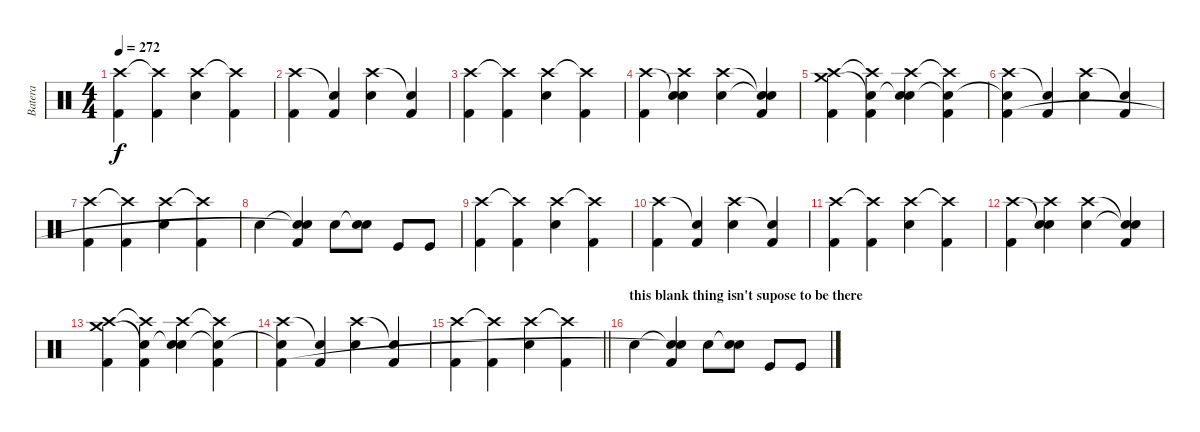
\track ("Batera" "Batera") {instrument percussion}
\staff {score}
\articulation defaults
\ts (4 4)
\tempo 272
\clef neutral
\ks c
("Crash high (hit)" "Kick (hit) 2").4{dy f} ("Crash high (hit)"{t} "Kick (hit) 2").4 ("Crash high (hit)" "Electric Snare (hit)").4 ("Crash high (hit)"{t} "Kick (hit) 2").4 |
("Crash high (hit)" "Kick (hit) 2").4 ("Snare (hit)"{t} "Kick (hit) 2").4 ("Crash high (hit)" "Electric Snare (hit)").4 ("Snare (hit)"{t} "Kick (hit) 2").4 |
("Crash high (hit)" "Kick (hit) 2").4 ("Crash high (hit)"{t} "Kick (hit) 2").4 ("Crash high (hit)" "Electric Snare (hit)").4 ("Crash high (hit)"{t} "Kick (hit) 2").4 |
("Crash high (hit)" "Kick (hit) 2").4 ("Snare (hit)"{t} "Crash high (hit)" "Electric Snare (hit)").4 ("Crash high (hit)" "Electric Snare (hit)").4 ("Snare (hit)"{t} "Snare (hit)"{t} "Kick (hit) 2").4 |
("Crash high (hit)" "Crash medium (hit)" "Kick (hit) 2").4 ("Crash high (hit)"{t} "Snare (hit)"{t} "Kick (hit) 2").4 ("Crash high (hit)" "Snare (hit)"{t} "Electric Snare (hit)").4 ("Crash high (hit)"{t} "Snare (hit)"{t} "Kick (hit) 2").4 |
("Crash high (hit)" "Snare (hit)"{t} "Kick (hit) 2").4 ("Snare (hit)"{t} "Kick (hit) 2").4 ("Crash high (hit)" "Electric Snare (hit)").4 ("Snare (hit)"{t} "Kick (hit) 2").4 |
("Crash high (hit)" "Kick (hit) 2").4 ("Crash high (hit)"{t} "Kick (hit) 2").4 ("Crash high (hit)" "Electric Snare (hit)").4 ("Crash high (hit)"{t} "Kick (hit) 2").4 |
"Electric Snare (hit)".4 ("Snare (hit)"{t} "Kick (hit) 2" "Snare (hit)"{t}).4 "Electric Snare (hit)".8 ("Snare (hit)"{t} "Electric Snare (hit)").8 "Kick (hit)".8 "Kick (hit)".8 |
("Crash high (hit)" "Kick (hit) 2").4 ("Crash high (hit)"{t} "Kick (hit) 2").4 ("Crash high (hit)" "Electric Snare (hit)").4 ("Crash high (hit)"{t} "Kick (hit) 2").4 |
("Crash high (hit)" "Kick (hit) 2").4 ("Snare (hit)"{t} "Kick (hit) 2").4 ("Crash high (hit)" "Electric Snare (hit)").4 ("Snare (hit)"{t} "Kick (hit) 2").4 |
("Crash high (hit)" "Kick (hit) 2").4 ("Crash high (hit)"{t} "Kick (hit) 2").4 ("Crash high (hit)" "Electric Snare (hit)").4 ("Crash high (hit)"{t} "Kick (hit) 2").4 |
("Crash high (hit)" "Kick (hit) 2").4 ("Snare (hit)"{t} "Crash high (hit)" "Electric Snare (hit)").4 ("Crash high (hit)" "Electric Snare (hit)").4 ("Snare (hit)"{t} "Snare (hit)"{t} "Kick (hit) 2").4 |
("Crash high (hit)" "Crash medium (hit)" "Kick (hit) 2").4 ("Crash high (hit)"{t} "Snare (hit)"{t} "Kick (hit) 2").4 ("Crash high (hit)" "Snare (hit)"{t} "Electric Snare (hit)").4 ("Crash high (hit)"{t} "Snare (hit)"{t} "Kick (hit) 2").4 |
("Crash high (hit)" "Snare (hit)"{t} "Kick (hit) 2").4 ("Snare (hit)"{t} "Kick (hit) 2").4 ("Crash high (hit)" "Electric Snare (hit)").4 ("Snare (hit)"{t} "Kick (hit) 2").4 |
\barLineRight lightlight
("Crash high (hit)" "Kick (hit) 2").4 ("Crash high (hit)"{t} "Kick (hit) 2").4 ("Crash high (hit)" "Electric Snare (hit)").4 ("Crash high (hit)"{t} "Kick (hit) 2").4 |
\section ("" "this blank thing isn't supose to be there")
"Electric Snare (hit)".4 ("Snare (hit)"{t} "Kick (hit) 2" "Snare (hit)"{t}).4 "Electric Snare (hit)".8 ("Snare (hit)"{t} "Electric Snare (hit)").8 "Kick (hit)".8 "Kick (hit)".8
